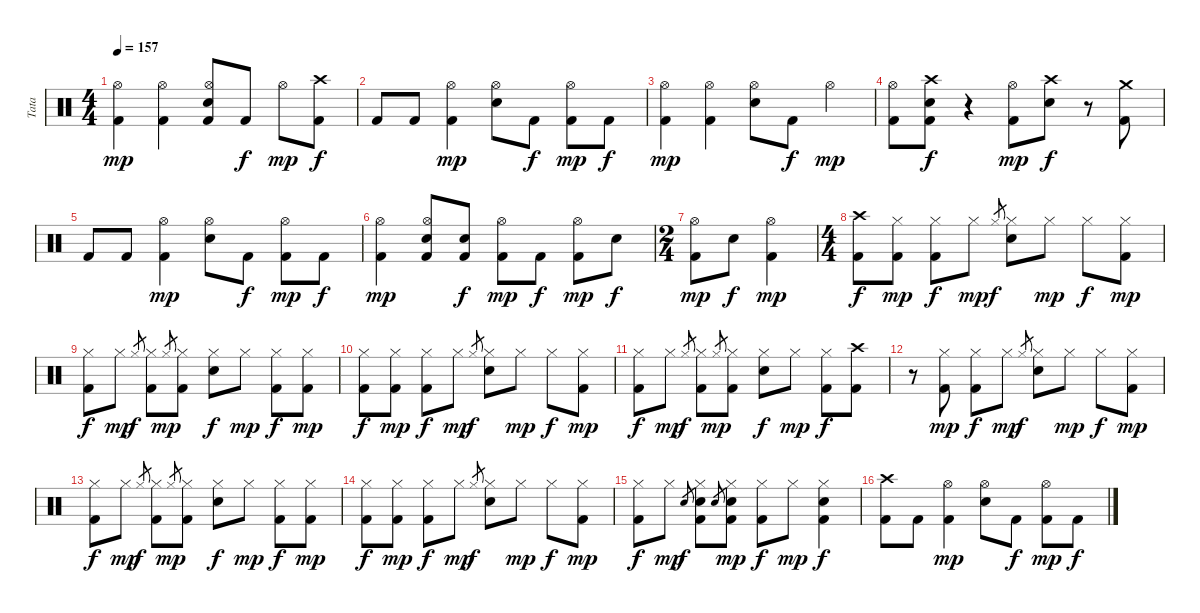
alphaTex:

\track ("Tata" "Tata") {instrument percussion}
\staff {score}
\articulation defaults
\ts (4 4)
\tempo 157
\clef neutral
\ks c
("Kick (hit) 2" "Hi-Hat (open)").4{dy mp} ("Kick (hit) 2" "Hi-Hat (open)").4 ("Kick (hit) 2" "Electric Snare (hit)" "Hi-Hat (open)").8 "Kick (hit) 2".8{dy f} "Hi-Hat (open)".8{dy mp} ("Kick (hit) 2" "Crash high (hit)").8{dy f} |
"Kick (hit) 2".8 "Kick (hit) 2".8 ("Kick (hit) 2" "Hi-Hat (open)").4{dy mp} ("Electric Snare (hit)" "Hi-Hat (open)").8 "Kick (hit) 2".8{dy f} ("Kick (hit) 2" "Hi-Hat (open)").8{dy mp} "Kick (hit) 2".8{dy f} |
("Kick (hit) 2" "Hi-Hat (open)").4{dy mp} ("Kick (hit) 2" "Hi-Hat (open)").4 ("Electric Snare (hit)" "Hi-Hat (open)").8 "Kick (hit) 2".8{dy f} "Hi-Hat (open)".4{dy mp} |
("Kick (hit) 2" "Hi-Hat (open)").8 ("Kick (hit) 2" "Electric Snare (hit)" "Crash high (hit)").8{dy f} r.4 ("Kick (hit) 2" "Hi-Hat (open)").8{dy mp} ("Electric Snare (hit)" "Crash high (hit)").8{dy f} r.8 ("Kick (hit) 2" "Crash medium (hit)").8 |
"Kick (hit) 2".8 "Kick (hit) 2".8 ("Kick (hit) 2" "Hi-Hat (open)").4{dy mp} ("Electric Snare (hit)" "Hi-Hat (open)").8 "Kick (hit) 2".8{dy f} ("Kick (hit) 2" "Hi-Hat (open)").8{dy mp} "Kick (hit) 2".8{dy f} |
("Kick (hit) 2" "Hi-Hat (open)").4{dy mp} ("Kick (hit) 2" "Electric Snare (hit)" "Hi-Hat (open)").8 ("Kick (hit) 2" "Electric Snare (hit)").8{dy f} ("Kick (hit) 2" "Hi-Hat (open)").8{dy mp} "Kick (hit) 2".8{dy f} ("Kick (hit) 2" "Hi-Hat (open)").8{dy mp} "Electric Snare (hit)".8{dy f} |
\ts (2 4)
("Kick (hit) 2" "Hi-Hat (open)").8{dy mp} "Electric Snare (hit)".8{dy f} ("Kick (hit) 2" "Hi-Hat (open)").4{dy mp} |
\ts (4 4)
("Kick (hit) 2" "Crash high (hit)").8{dy f} ("Kick (hit) 2" "Hi-Hat (closed)").8{dy mp} ("Kick (hit) 2" "Hi-Hat (closed)").8{dy f} "Hi-Hat (closed)".8{dy mp} "Hi-Hat (closed)".8{gr dy f} ("Electric Snare (hit)" "Hi-Hat (closed)").8 "Hi-Hat (closed)".8{dy mp} "Hi-Hat (closed)".8{dy f} ("Kick (hit) 2" "Hi-Hat (closed)").8{dy mp} |
("Kick (hit) 2" "Hi-Hat (closed)").8{dy f} "Hi-Hat (closed)".8{dy mp} "Hi-Hat (closed)".8{gr dy f} ("Kick (hit) 2" "Hi-Hat (closed)").8 "Hi-Hat (closed)".8{gr dy mp} ("Kick (hit) 2" "Hi-Hat (closed)").8 ("Electric Snare (hit)" "Hi-Hat (closed)").8{dy f} "Hi-Hat (closed)".8{dy mp} ("Kick (hit) 2" "Hi-Hat (closed)").8{dy f} ("Kick (hit) 2" "Hi-Hat (closed)").8{dy mp} |
("Kick (hit) 2" "Hi-Hat (closed)").8{dy f} ("Kick (hit) 2" "Hi-Hat (closed)").8{dy mp} ("Kick (hit) 2" "Hi-Hat (closed)").8{dy f} "Hi-Hat (closed)".8{dy mp} "Hi-Hat (closed)".8{gr dy f} ("Electric Snare (hit)" "Hi-Hat (closed)").8 "Hi-Hat (closed)".8{dy mp} "Hi-Hat (closed)".8{dy f} ("Kick (hit) 2" "Hi-Hat (closed)").8{dy mp} |
("Kick (hit) 2" "Hi-Hat (closed)").8{dy f} "Hi-Hat (closed)".8{dy mp} "Hi-Hat (closed)".8{gr dy f} ("Kick (hit) 2" "Hi-Hat (closed)").8 "Hi-Hat (closed)".8{gr dy mp} ("Kick (hit) 2" "Hi-Hat (closed)").8 ("Electric Snare (hit)" "Hi-Hat (closed)").8{dy f} "Hi-Hat (closed)".8{dy mp} ("Kick (hit) 2" "Hi-Hat (closed)").8{dy f} ("Kick (hit) 2" "Crash high (hit)").8 |
r.8 ("Kick (hit) 2" "Hi-Hat (closed)").8{dy mp} ("Kick (hit) 2" "Hi-Hat (closed)").8{dy f} "Hi-Hat (closed)".8{dy mp} "Hi-Hat (closed)".8{gr dy f} ("Electric Snare (hit)" "Hi-Hat (closed)").8 "Hi-Hat (closed)".8{dy mp} "Hi-Hat (closed)".8{dy f} ("Kick (hit) 2" "Hi-Hat (closed)").8{dy mp} |
("Kick (hit) 2" "Hi-Hat (closed)").8{dy f} "Hi-Hat (closed)".8{dy mp} "Hi-Hat (closed)".8{gr dy f} ("Kick (hit) 2" "Hi-Hat (closed)").8 "Hi-Hat (closed)".8{gr dy mp} ("Kick (hit) 2" "Hi-Hat (closed)").8 ("Electric Snare (hit)" "Hi-Hat (closed)").8{dy f} "Hi-Hat (closed)".8{dy mp} ("Kick (hit) 2" "Hi-Hat (closed)").8{dy f} ("Kick (hit) 2" "Hi-Hat (closed)").8{dy mp} |
("Kick (hit) 2" "Hi-Hat (closed)").8{dy f} ("Kick (hit) 2" "Hi-Hat (closed)").8{dy mp} ("Kick (hit) 2" "Hi-Hat (closed)").8{dy f} "Hi-Hat (closed)".8{dy mp} "Hi-Hat (closed)".8{gr dy f} ("Electric Snare (hit)" "Hi-Hat (closed)").8 "Hi-Hat (closed)".8{dy mp} "Hi-Hat (closed)".8{dy f} ("Kick (hit) 2" "Hi-Hat (closed)").8{dy mp} |
("Kick (hit) 2" "Hi-Hat (closed)").8{dy f} "Hi-Hat (closed)".8{dy mp} "Electric Snare (hit)".8{gr dy f} ("Kick (hit) 2" "Electric Snare (hit)" "Hi-Hat (closed)").8 "Electric Snare (hit)".8{gr} ("Kick (hit) 2" "Electric Snare (hit)" "Hi-Hat (closed)").8{dy mp} ("Kick (hit) 2" "Hi-Hat (closed)").8{dy f} "Hi-Hat (closed)".8{dy mp} ("Kick (hit) 2" "Electric Snare (hit)" "Hi-Hat (closed)").4{dy f} |
("Kick (hit) 2" "Crash high (hit)").8 "Kick (hit) 2".8 ("Kick (hit) 2" "Hi-Hat (open)").4{dy mp} ("Electric Snare (hit)" "Hi-Hat (open)").8 "Kick (hit) 2".8{dy f} ("Kick (hit) 2" "Hi-Hat (open)").8{dy mp} "Kick (hit) 2".8{dy f}
